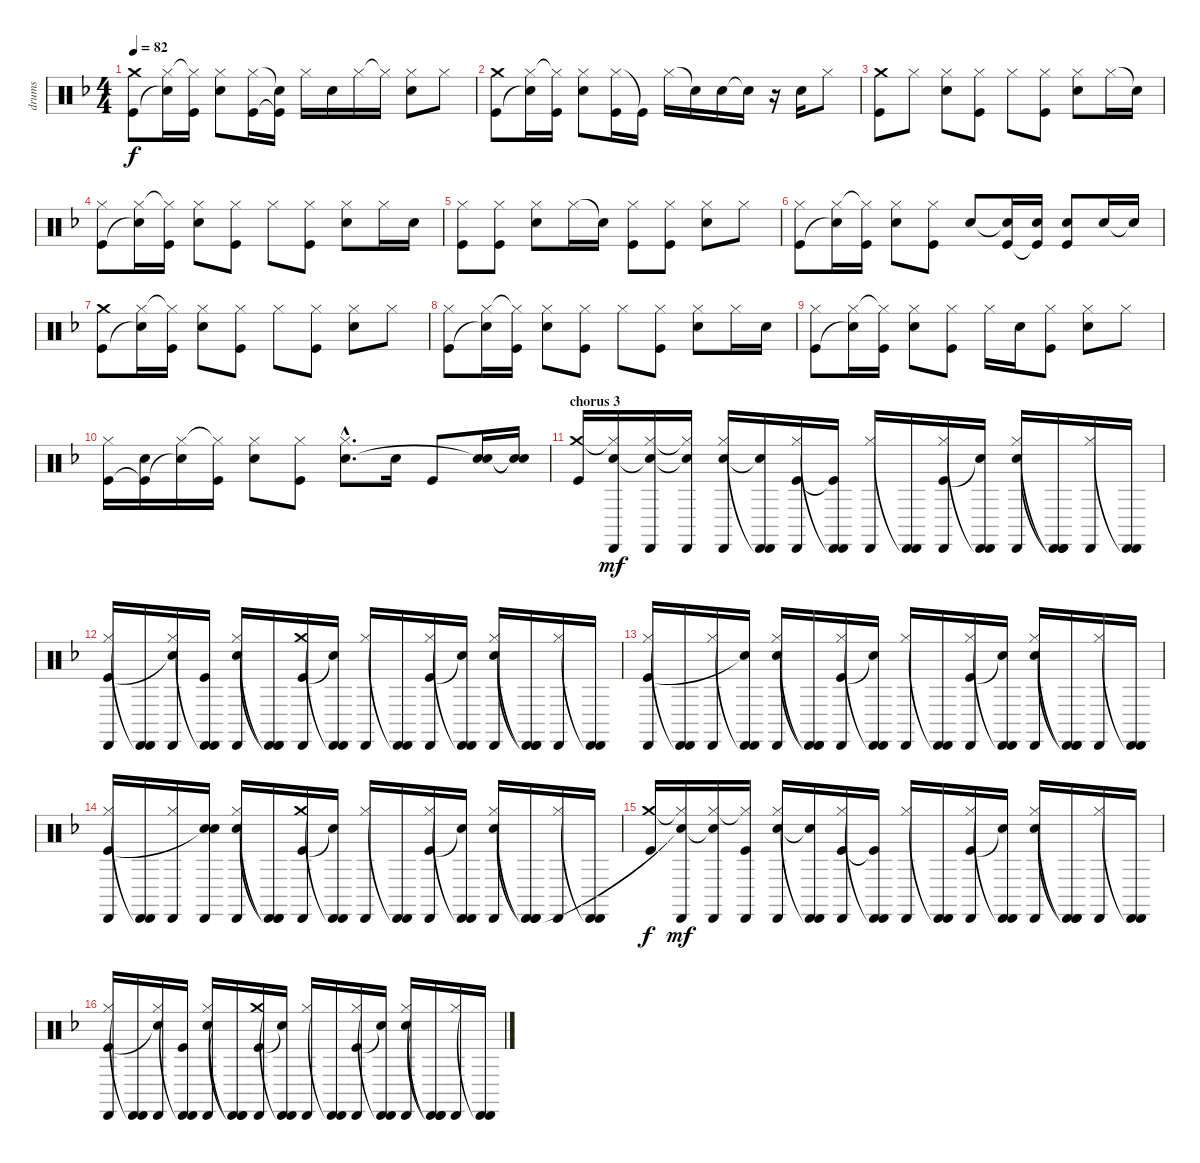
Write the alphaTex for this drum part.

\track ("drums" "drums") {instrument percussion}
\staff {score}
\articulation defaults
\ts (4 4)
\tempo 82
\clef neutral
\ks f
("Crash medium (hit)" "Kick (hit)").8{dy f} ("Hi-Hat (closed)" "Snare (hit)"{t}).16 ("Hi-Hat (closed)"{t} "Kick (hit)").16 ("Hi-Hat (closed)" "Snare (hit) 2").8 ("Hi-Hat (closed)" "Kick (hit)").16 ("Snare (hit)"{t} "Kick (hit)"{t}).16 "Hi-Hat (closed)".16 "Snare (hit) 2".16 "Hi-Hat (closed)".16 "Hi-Hat (closed)"{t}.16 ("Hi-Hat (closed)" "Snare (hit) 2").8 "Hi-Hat (closed)".8 |
("Crash medium (hit)" "Kick (hit)").8 ("Hi-Hat (closed)" "Snare (hit)"{t}).16 ("Hi-Hat (closed)"{t} "Kick (hit)").16 ("Hi-Hat (closed)" "Snare (hit) 2").8 ("Hi-Hat (closed)" "Kick (hit)").16 "Kick (hit)"{t}.16 "Hi-Hat (closed)".16 "Snare (hit)"{t}.16 "Snare (hit) 2".16 "Snare (hit)"{t}.16 r.16 "Snare (hit) 2".16 "Hi-Hat (closed)".8 |
("Crash medium (hit)" "Kick (hit)").8 "Hi-Hat (closed)".8 ("Hi-Hat (closed)" "Snare (hit) 2").8 ("Hi-Hat (closed)" "Kick (hit)").8 "Hi-Hat (closed)".8 ("Hi-Hat (closed)" "Kick (hit)").8 ("Hi-Hat (closed)" "Snare (hit) 2").8 "Hi-Hat (closed)".16 "Snare (hit)"{t}.16 |
("Hi-Hat (closed)" "Kick (hit)").8 ("Hi-Hat (closed)" "Snare (hit)"{t}).16 ("Hi-Hat (closed)"{t} "Kick (hit)").16 ("Hi-Hat (closed)" "Snare (hit) 2").8 ("Hi-Hat (closed)" "Kick (hit)").8 "Hi-Hat (closed)".8 ("Hi-Hat (closed)" "Kick (hit)").8 ("Hi-Hat (closed)" "Snare (hit) 2").8 "Hi-Hat (closed)".16 "Snare (hit) 2".16 |
("Hi-Hat (closed)" "Kick (hit)").8 ("Hi-Hat (closed)" "Kick (hit)").8 ("Hi-Hat (closed)" "Snare (hit) 2").8 "Hi-Hat (closed)".16 "Snare (hit)"{t}.16 ("Hi-Hat (closed)" "Kick (hit)").8 ("Hi-Hat (closed)" "Kick (hit)").8 ("Hi-Hat (closed)" "Snare (hit) 2").8 "Hi-Hat (closed)".8 |
("Hi-Hat (closed)" "Kick (hit)").8 ("Hi-Hat (closed)" "Snare (hit)"{t}).16 ("Hi-Hat (closed)"{t} "Kick (hit)").16 ("Hi-Hat (closed)" "Snare (hit) 2").8 ("Hi-Hat (closed)" "Kick (hit)").8 "Snare (hit) 2".8 ("Snare (hit) 2"{t} "Kick (hit)").16 ("Snare (hit) 2" "Kick (hit)"{t}).16 ("Snare (hit) 2" "Kick (hit)").8 "Snare (hit) 2".16 "Snare (hit) 2"{t}.16 |
("Crash medium (hit)" "Kick (hit)").8 ("Hi-Hat (closed)" "Snare (hit)"{t}).16 ("Hi-Hat (closed)"{t} "Kick (hit)").16 ("Hi-Hat (closed)" "Snare (hit) 2").8 ("Hi-Hat (closed)" "Kick (hit)").8 "Hi-Hat (closed)".8 ("Hi-Hat (closed)" "Kick (hit)").8 ("Hi-Hat (closed)" "Snare (hit) 2").8 "Hi-Hat (closed)".8 |
("Hi-Hat (closed)" "Kick (hit)").8 ("Hi-Hat (closed)" "Snare (hit)"{t}).16 ("Hi-Hat (closed)"{t} "Kick (hit)").16 ("Hi-Hat (closed)" "Snare (hit) 2").8 ("Hi-Hat (closed)" "Kick (hit)").8 "Hi-Hat (closed)".8 ("Hi-Hat (closed)" "Kick (hit)").8 ("Hi-Hat (closed)" "Snare (hit) 2").8 "Hi-Hat (closed)".16 "Snare (hit) 2".16 |
("Hi-Hat (closed)" "Kick (hit)").8 ("Hi-Hat (closed)" "Snare (hit)"{t}).16 ("Hi-Hat (closed)"{t} "Kick (hit)").16 ("Hi-Hat (closed)" "Snare (hit) 2").8 ("Hi-Hat (closed)" "Kick (hit)").8 "Hi-Hat (closed)".16 "Snare (hit) 2".16 ("Hi-Hat (closed)" "Kick (hit)").8 ("Hi-Hat (closed)" "Snare (hit) 2").8 "Hi-Hat (closed)".8 |
("Hi-Hat (closed)" "Kick (hit)").16 ("Snare (hit) 2" "Kick (hit)"{t}).16 ("Hi-Hat (closed)" "Snare (hit)"{t}).16 ("Hi-Hat (closed)"{t} "Kick (hit)").16 ("Hi-Hat (closed)" "Snare (hit) 2").8 ("Hi-Hat (closed)" "Kick (hit)").8 ("Hi-Hat (closed)"{hac} "Snare (hit) 2"{hac}).8{d} "Snare (hit) 2".16 "Kick (hit)".8 ("Snare (hit) 2" "Snare (hit)"{t}).16 ("Snare (hit) 2"{t} "Snare (hit)"{t}).16 |
\section ("" "chorus 3")
("Crash medium (hit)" "Kick (hit)").16{volume 15} ("Hi-Hat (closed)"{t} "Cabasa (hit)" "Snare (hit)").16{dy mf} ("Hi-Hat (closed)" "Cabasa (hit)" "Snare (hit)"{t}).16 ("Hi-Hat (closed)"{t} "Cabasa (hit)" "Snare (hit)"{t}).16 ("Hi-Hat (closed)" "Snare (hit) 2" "Cabasa (hit)").16 ("Cabasa (hit)"{t} "Snare (hit)"{t} "Cabasa (hit)").16 ("Hi-Hat (closed)" "Cabasa (hit)" "Kick (hit)").16 ("Cabasa (hit)"{t} "Cabasa (hit)" "Kick (hit)"{t}).16 ("Hi-Hat (closed)" "Cabasa (hit)").16 ("Cabasa (hit)"{t} "Cabasa (hit)").16 ("Hi-Hat (closed)" "Cabasa (hit)" "Kick (hit)").16 ("Cabasa (hit)"{t} "Cabasa (hit)" "Snare (hit)"{t}).16 ("Hi-Hat (closed)" "Snare (hit) 2" "Cabasa (hit)").16 ("Cabasa (hit)"{t} "Cabasa (hit)"{t} "Cabasa (hit)").16 ("Hi-Hat (closed)" "Cabasa (hit)").16 ("Cabasa (hit)"{t} "Cabasa (hit)").16 |
("Hi-Hat (closed)" "Cabasa (hit)" "Kick (hit)").16 ("Cabasa (hit)"{t} "Cabasa (hit)").16 ("Hi-Hat (closed)" "Cabasa (hit)" "Snare (hit)"{t}).16 ("Cabasa (hit)"{t} "Cabasa (hit)" "Kick (hit)").16 ("Hi-Hat (closed)" "Snare (hit) 2" "Cabasa (hit)").16 ("Cabasa (hit)"{t} "Cabasa (hit)"{t} "Cabasa (hit)").16 ("Crash medium (hit)" "Cabasa (hit)" "Kick (hit)").16 ("Cabasa (hit)"{t} "Cabasa (hit)" "Snare (hit)"{t}).16 ("Hi-Hat (closed)" "Cabasa (hit)").16 ("Cabasa (hit)"{t} "Cabasa (hit)").16 ("Hi-Hat (closed)" "Cabasa (hit)" "Kick (hit)").16 ("Cabasa (hit)"{t} "Cabasa (hit)" "Snare (hit)"{t}).16 ("Hi-Hat (closed)" "Snare (hit) 2" "Cabasa (hit)").16 ("Cabasa (hit)"{t} "Cabasa (hit)"{t} "Cabasa (hit)").16 ("Hi-Hat (closed)" "Cabasa (hit)").16 ("Cabasa (hit)"{t} "Cabasa (hit)").16 |
("Hi-Hat (closed)" "Cabasa (hit)" "Kick (hit)").16 ("Cabasa (hit)"{t} "Cabasa (hit)").16 ("Hi-Hat (closed)" "Cabasa (hit)").16 ("Cabasa (hit)"{t} "Cabasa (hit)" "Snare (hit)"{t}).16 ("Hi-Hat (closed)" "Snare (hit) 2" "Cabasa (hit)").16 ("Cabasa (hit)"{t} "Cabasa (hit)"{t} "Cabasa (hit)").16 ("Hi-Hat (closed)" "Cabasa (hit)" "Kick (hit)").16 ("Cabasa (hit)"{t} "Cabasa (hit)" "Snare (hit)"{t}).16 ("Hi-Hat (closed)" "Cabasa (hit)").16 ("Cabasa (hit)"{t} "Cabasa (hit)").16 ("Hi-Hat (closed)" "Cabasa (hit)" "Kick (hit)").16 ("Cabasa (hit)"{t} "Cabasa (hit)" "Snare (hit)"{t}).16 ("Hi-Hat (closed)" "Snare (hit) 2" "Cabasa (hit)").16 ("Cabasa (hit)"{t} "Cabasa (hit)"{t} "Cabasa (hit)").16 ("Hi-Hat (closed)" "Cabasa (hit)").16 ("Cabasa (hit)"{t} "Cabasa (hit)").16 |
("Hi-Hat (closed)" "Cabasa (hit)" "Kick (hit)").16 ("Cabasa (hit)"{t} "Cabasa (hit)").16 ("Hi-Hat (closed)" "Cabasa (hit)").16 ("Snare (hit) 2" "Cabasa (hit)" "Snare (hit)"{t}).16 ("Hi-Hat (closed)" "Snare (hit) 2" "Cabasa (hit)").16 ("Cabasa (hit)"{t} "Cabasa (hit)"{t} "Cabasa (hit)").16 ("Crash medium (hit)" "Cabasa (hit)" "Kick (hit)").16 ("Cabasa (hit)"{t} "Cabasa (hit)" "Snare (hit)"{t}).16 ("Hi-Hat (closed)" "Cabasa (hit)").16 ("Cabasa (hit)"{t} "Cabasa (hit)").16 ("Hi-Hat (closed)" "Cabasa (hit)" "Kick (hit)").16 ("Cabasa (hit)"{t} "Cabasa (hit)" "Snare (hit)"{t}).16 ("Hi-Hat (closed)" "Snare (hit) 2" "Cabasa (hit)").16 ("Cabasa (hit)"{t} "Cabasa (hit)"{t} "Cabasa (hit)").16 ("Hi-Hat (closed)" "Cabasa (hit)").16 ("Cabasa (hit)"{t} "Cabasa (hit)").16 |
("Crash medium (hit)" "Kick (hit)").16{dy f} ("Hi-Hat (closed)"{t} "Cabasa (hit)" "Snare (hit)"{t}).16{dy mf} ("Hi-Hat (closed)" "Cabasa (hit)" "Snare (hit)"{t}).16 ("Hi-Hat (closed)"{t} "Cabasa (hit)" "Kick (hit)").16 ("Hi-Hat (closed)" "Snare (hit) 2" "Cabasa (hit)").16 ("Cabasa (hit)"{t} "Snare (hit)"{t} "Cabasa (hit)").16 ("Hi-Hat (closed)" "Cabasa (hit)" "Kick (hit)").16 ("Cabasa (hit)"{t} "Cabasa (hit)" "Kick (hit)"{t}).16 ("Hi-Hat (closed)" "Cabasa (hit)").16 ("Cabasa (hit)"{t} "Cabasa (hit)").16 ("Hi-Hat (closed)" "Cabasa (hit)" "Kick (hit)").16 ("Cabasa (hit)"{t} "Cabasa (hit)" "Snare (hit)"{t}).16 ("Hi-Hat (closed)" "Snare (hit) 2" "Cabasa (hit)").16 ("Cabasa (hit)"{t} "Cabasa (hit)"{t} "Cabasa (hit)").16 ("Hi-Hat (closed)" "Cabasa (hit)").16 ("Cabasa (hit)"{t} "Cabasa (hit)").16 |
("Hi-Hat (closed)" "Cabasa (hit)" "Kick (hit)").16 ("Cabasa (hit)"{t} "Cabasa (hit)").16 ("Hi-Hat (closed)" "Cabasa (hit)" "Snare (hit)"{t}).16 ("Cabasa (hit)"{t} "Cabasa (hit)" "Kick (hit)").16 ("Hi-Hat (closed)" "Snare (hit) 2" "Cabasa (hit)").16 ("Cabasa (hit)"{t} "Cabasa (hit)"{t} "Cabasa (hit)").16 ("Crash medium (hit)" "Cabasa (hit)" "Kick (hit)").16 ("Cabasa (hit)"{t} "Cabasa (hit)" "Snare (hit)"{t}).16 ("Hi-Hat (closed)" "Cabasa (hit)").16 ("Cabasa (hit)"{t} "Cabasa (hit)").16 ("Hi-Hat (closed)" "Cabasa (hit)" "Kick (hit)").16 ("Cabasa (hit)"{t} "Cabasa (hit)" "Snare (hit)"{t}).16 ("Hi-Hat (closed)" "Snare (hit) 2" "Cabasa (hit)").16 ("Cabasa (hit)"{t} "Cabasa (hit)"{t} "Cabasa (hit)").16 ("Hi-Hat (closed)" "Cabasa (hit)").16 ("Cabasa (hit)"{t} "Cabasa (hit)").16
